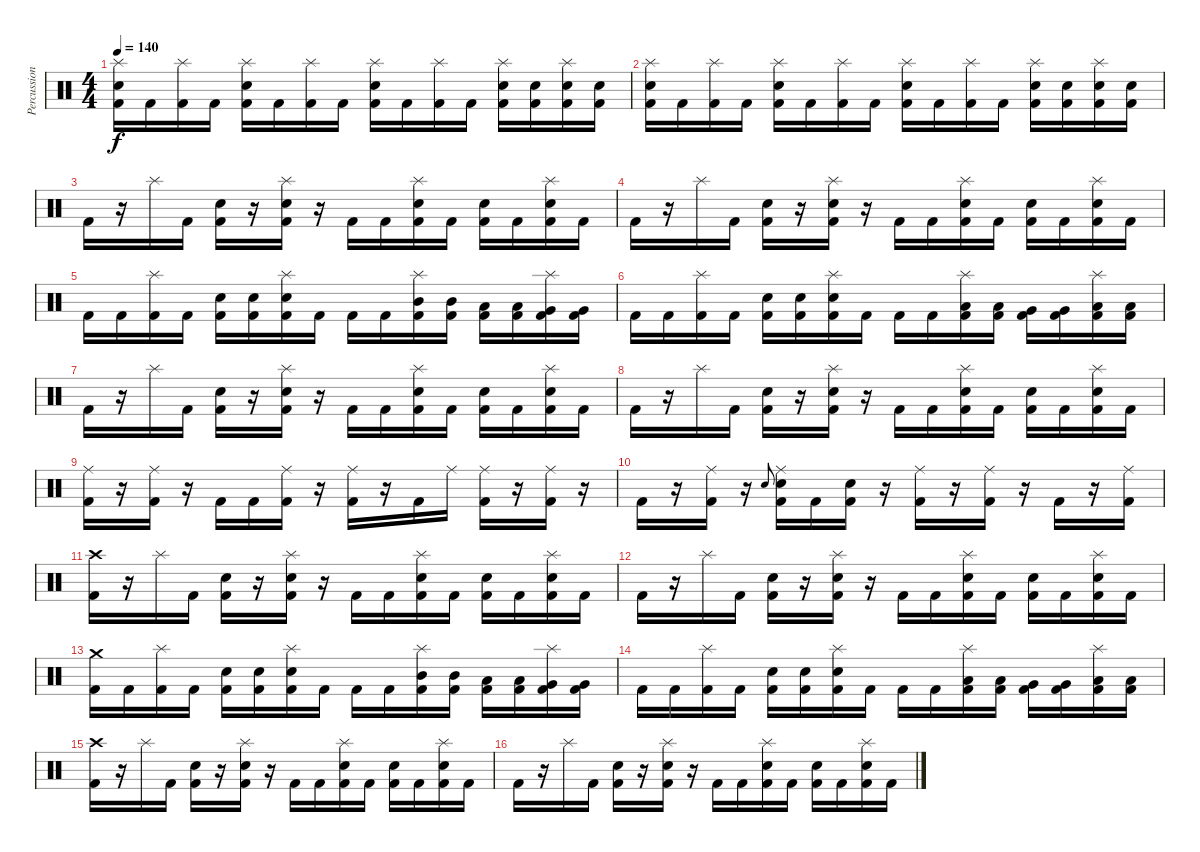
\track ("Percussion" "Percussion") {instrument percussion}
\staff {score}
\articulation defaults
\ts (4 4)
\tempo 140
\clef neutral
\ks c
("Splash (hit)" "Electric Snare (hit)" "Kick (hit) 2").16{dy f} "Kick (hit) 2".16 ("Splash (hit)" "Kick (hit) 2").16 "Kick (hit) 2".16 ("Splash (hit)" "Electric Snare (hit)" "Kick (hit) 2").16 "Kick (hit) 2".16 ("Splash (hit)" "Kick (hit) 2").16 "Kick (hit) 2".16 ("Splash (hit)" "Electric Snare (hit)" "Kick (hit) 2").16 "Kick (hit) 2".16 ("Splash (hit)" "Kick (hit) 2").16 "Kick (hit) 2".16 ("Splash (hit)" "Electric Snare (hit)" "Kick (hit) 2").16 ("Electric Snare (hit)" "Kick (hit) 2").16 ("Splash (hit)" "Electric Snare (hit)" "Kick (hit) 2").16 ("Electric Snare (hit)" "Kick (hit) 2").16 |
("Splash (hit)" "Electric Snare (hit)" "Kick (hit) 2").16 "Kick (hit) 2".16 ("Splash (hit)" "Kick (hit) 2").16 "Kick (hit) 2".16 ("Splash (hit)" "Electric Snare (hit)" "Kick (hit) 2").16 "Kick (hit) 2".16 ("Splash (hit)" "Kick (hit) 2").16 "Kick (hit) 2".16 ("Splash (hit)" "Electric Snare (hit)" "Kick (hit) 2").16 "Kick (hit) 2".16 ("Splash (hit)" "Kick (hit) 2").16 "Kick (hit) 2".16 ("Splash (hit)" "Electric Snare (hit)" "Kick (hit) 2").16 ("Electric Snare (hit)" "Kick (hit) 2").16 ("Splash (hit)" "Electric Snare (hit)" "Kick (hit) 2").16 ("Electric Snare (hit)" "Kick (hit) 2").16 |
"Kick (hit) 2".16 r.16 "Splash (hit)".16 "Kick (hit) 2".16 ("Electric Snare (hit)" "Kick (hit) 2").16 r.16 ("Splash (hit)" "Electric Snare (hit)" "Kick (hit) 2").16 r.16 "Kick (hit) 2".16 "Kick (hit) 2".16 ("Splash (hit)" "Electric Snare (hit)" "Kick (hit) 2").16 "Kick (hit) 2".16 ("Electric Snare (hit)" "Kick (hit) 2").16 "Kick (hit) 2".16 ("Splash (hit)" "Electric Snare (hit)" "Kick (hit) 2").16 "Kick (hit) 2".16 |
"Kick (hit) 2".16 r.16 "Splash (hit)".16 "Kick (hit) 2".16 ("Electric Snare (hit)" "Kick (hit) 2").16 r.16 ("Splash (hit)" "Electric Snare (hit)" "Kick (hit) 2").16 r.16 "Kick (hit) 2".16 "Kick (hit) 2".16 ("Splash (hit)" "Electric Snare (hit)" "Kick (hit) 2").16 "Kick (hit) 2".16 ("Electric Snare (hit)" "Kick (hit) 2").16 "Kick (hit) 2".16 ("Splash (hit)" "Electric Snare (hit)" "Kick (hit) 2").16 "Kick (hit) 2".16 |
"Kick (hit) 2".16 "Kick (hit) 2".16 ("Splash (hit)" "Kick (hit) 2").16 "Kick (hit) 2".16 ("Electric Snare (hit)" "Kick (hit) 2").16 ("Electric Snare (hit)" "Kick (hit) 2").16 ("Splash (hit)" "Electric Snare (hit)" "Kick (hit) 2").16 "Kick (hit) 2".16 "Kick (hit) 2".16 "Kick (hit) 2".16 ("Splash (hit)" "Mid Tom (hit)" "Kick (hit) 2").16 ("Mid Tom (hit)" "Kick (hit) 2").16 ("Low Tom (hit)" "Kick (hit) 2").16 ("Low Tom (hit)" "Kick (hit) 2").16 ("Splash (hit)" "Very Low Tom (hit)" "Kick (hit) 2").16 ("Very Low Tom (hit)" "Kick (hit) 2").16 |
"Kick (hit) 2".16 "Kick (hit) 2".16 ("Splash (hit)" "Kick (hit) 2").16 "Kick (hit) 2".16 ("Electric Snare (hit)" "Kick (hit) 2").16 ("Electric Snare (hit)" "Kick (hit) 2").16 ("Splash (hit)" "Electric Snare (hit)" "Kick (hit) 2").16 "Kick (hit) 2".16 "Kick (hit) 2".16 "Kick (hit) 2".16 ("Splash (hit)" "Low Tom (hit)" "Kick (hit) 2").16 ("Low Tom (hit)" "Kick (hit) 2").16 ("Very Low Tom (hit)" "Kick (hit) 2").16 ("Very Low Tom (hit)" "Kick (hit) 2").16 ("Splash (hit)" "Low Floor Tom (hit)" "Kick (hit) 2").16 ("Low Floor Tom (hit)" "Kick (hit) 2").16 |
"Kick (hit) 2".16 r.16 "Splash (hit)".16 "Kick (hit) 2".16 ("Electric Snare (hit)" "Kick (hit) 2").16 r.16 ("Splash (hit)" "Electric Snare (hit)" "Kick (hit) 2").16 r.16 "Kick (hit) 2".16 "Kick (hit) 2".16 ("Splash (hit)" "Electric Snare (hit)" "Kick (hit) 2").16 "Kick (hit) 2".16 ("Electric Snare (hit)" "Kick (hit) 2").16 "Kick (hit) 2".16 ("Splash (hit)" "Electric Snare (hit)" "Kick (hit) 2").16 "Kick (hit) 2".16 |
"Kick (hit) 2".16 r.16 "Splash (hit)".16 "Kick (hit) 2".16 ("Electric Snare (hit)" "Kick (hit) 2").16 r.16 ("Splash (hit)" "Electric Snare (hit)" "Kick (hit) 2").16 r.16 "Kick (hit) 2".16 "Kick (hit) 2".16 ("Splash (hit)" "Electric Snare (hit)" "Kick (hit) 2").16 "Kick (hit) 2".16 ("Electric Snare (hit)" "Kick (hit) 2").16 "Kick (hit) 2".16 ("Splash (hit)" "Electric Snare (hit)" "Kick (hit) 2").16 "Kick (hit) 2".16 |
("Ride (middle)" "Kick (hit) 2").16 r.16 ("Ride (middle)" "Kick (hit) 2").16 r.16 "Kick (hit) 2".16 "Kick (hit) 2".16 ("Ride (middle)" "Kick (hit) 2").16 r.16 ("Ride (middle)" "Kick (hit) 2").16 r.16 "Kick (hit) 2".16 "Ride (middle)".16 ("Ride (middle)" "Kick (hit) 2").16 r.16 ("Ride (middle)" "Kick (hit) 2").16 r.16 |
"Kick (hit) 2".16 r.16 ("Ride (middle)" "Kick (hit) 2").16 r.16 "Electric Snare (hit)".8{gr onbeat} ("Ride (middle)" "Electric Snare (hit)" "Kick (hit) 2").16 "Kick (hit) 2".16 ("Electric Snare (hit)" "Kick (hit) 2").16 r.16 ("Ride (middle)" "Kick (hit) 2").16 r.16 ("Ride (middle)" "Kick (hit) 2").16 r.16 "Kick (hit) 2".16 r.16 ("Ride (middle)" "Kick (hit) 2").16 |
("Crash high (hit)" "Kick (hit) 2").16 r.16 "Splash (hit)".16 "Kick (hit) 2".16 ("Electric Snare (hit)" "Kick (hit) 2").16 r.16 ("Splash (hit)" "Electric Snare (hit)" "Kick (hit) 2").16 r.16 "Kick (hit) 2".16 "Kick (hit) 2".16 ("Splash (hit)" "Electric Snare (hit)" "Kick (hit) 2").16 "Kick (hit) 2".16 ("Electric Snare (hit)" "Kick (hit) 2").16 "Kick (hit) 2".16 ("Splash (hit)" "Electric Snare (hit)" "Kick (hit) 2").16 "Kick (hit) 2".16 |
"Kick (hit) 2".16 r.16 "Splash (hit)".16 "Kick (hit) 2".16 ("Electric Snare (hit)" "Kick (hit) 2").16 r.16 ("Splash (hit)" "Electric Snare (hit)" "Kick (hit) 2").16 r.16 "Kick (hit) 2".16 "Kick (hit) 2".16 ("Splash (hit)" "Electric Snare (hit)" "Kick (hit) 2").16 "Kick (hit) 2".16 ("Electric Snare (hit)" "Kick (hit) 2").16 "Kick (hit) 2".16 ("Splash (hit)" "Electric Snare (hit)" "Kick (hit) 2").16 "Kick (hit) 2".16 |
("Crash medium (hit)" "Kick (hit) 2").16 "Kick (hit) 2".16 ("Splash (hit)" "Kick (hit) 2").16 "Kick (hit) 2".16 ("Electric Snare (hit)" "Kick (hit) 2").16 ("Electric Snare (hit)" "Kick (hit) 2").16 ("Splash (hit)" "Electric Snare (hit)" "Kick (hit) 2").16 "Kick (hit) 2".16 "Kick (hit) 2".16 "Kick (hit) 2".16 ("Splash (hit)" "Mid Tom (hit)" "Kick (hit) 2").16 ("Mid Tom (hit)" "Kick (hit) 2").16 ("Low Tom (hit)" "Kick (hit) 2").16 ("Low Tom (hit)" "Kick (hit) 2").16 ("Splash (hit)" "Very Low Tom (hit)" "Kick (hit) 2").16 ("Very Low Tom (hit)" "Kick (hit) 2").16 |
"Kick (hit) 2".16 "Kick (hit) 2".16 ("Splash (hit)" "Kick (hit) 2").16 "Kick (hit) 2".16 ("Electric Snare (hit)" "Kick (hit) 2").16 ("Electric Snare (hit)" "Kick (hit) 2").16 ("Splash (hit)" "Electric Snare (hit)" "Kick (hit) 2").16 "Kick (hit) 2".16 "Kick (hit) 2".16 "Kick (hit) 2".16 ("Splash (hit)" "Low Tom (hit)" "Kick (hit) 2").16 ("Low Tom (hit)" "Kick (hit) 2").16 ("Very Low Tom (hit)" "Kick (hit) 2").16 ("Very Low Tom (hit)" "Kick (hit) 2").16 ("Splash (hit)" "Low Floor Tom (hit)" "Kick (hit) 2").16 ("Low Floor Tom (hit)" "Kick (hit) 2").16 |
("Crash high (hit)" "Kick (hit) 2").16 r.16 "Splash (hit)".16 "Kick (hit) 2".16 ("Electric Snare (hit)" "Kick (hit) 2").16 r.16 ("Splash (hit)" "Electric Snare (hit)" "Kick (hit) 2").16 r.16 "Kick (hit) 2".16 "Kick (hit) 2".16 ("Splash (hit)" "Electric Snare (hit)" "Kick (hit) 2").16 "Kick (hit) 2".16 ("Electric Snare (hit)" "Kick (hit) 2").16 "Kick (hit) 2".16 ("Splash (hit)" "Electric Snare (hit)" "Kick (hit) 2").16 "Kick (hit) 2".16 |
"Kick (hit) 2".16 r.16 "Splash (hit)".16 "Kick (hit) 2".16 ("Electric Snare (hit)" "Kick (hit) 2").16 r.16 ("Splash (hit)" "Electric Snare (hit)" "Kick (hit) 2").16 r.16 "Kick (hit) 2".16 "Kick (hit) 2".16 ("Splash (hit)" "Electric Snare (hit)" "Kick (hit) 2").16 "Kick (hit) 2".16 ("Electric Snare (hit)" "Kick (hit) 2").16 "Kick (hit) 2".16 ("Splash (hit)" "Electric Snare (hit)" "Kick (hit) 2").16 "Kick (hit) 2".16
